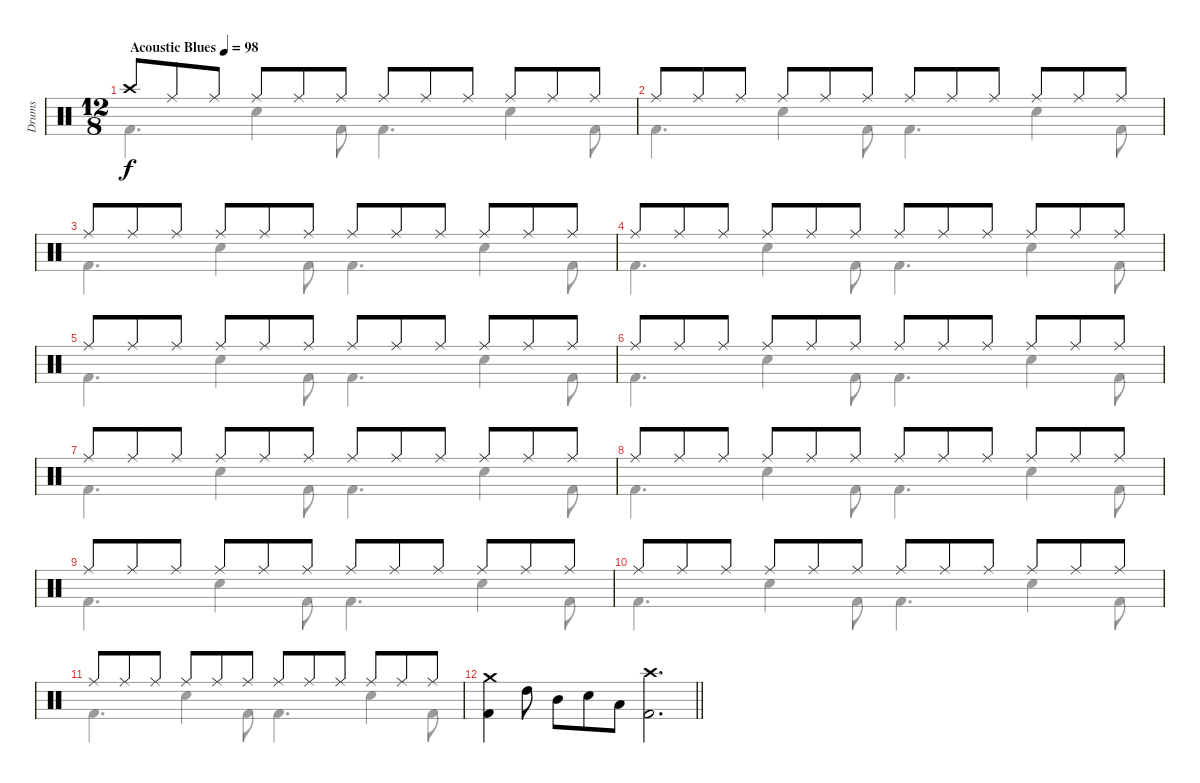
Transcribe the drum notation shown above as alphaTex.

\track ("Drums" "Drums") {instrument percussion}
\staff {score}
\articulation defaults
\voice
\ts (12 8)
\tempo (98 "Acoustic Blues")
\clef neutral
\ks c "Crash high (hit)".8{dy f} "Ride (middle)".8 "Ride (middle)".8 "Ride (middle)".8 "Ride (middle)".8 "Ride (middle)".8 "Ride (middle)".8 "Ride (middle)".8 "Ride (middle)".8 "Ride (middle)".8 "Ride (middle)".8 "Ride (middle)".8
|
"Ride (middle)".8 "Ride (middle)".8 "Ride (middle)".8 "Ride (middle)".8 "Ride (middle)".8 "Ride (middle)".8 "Ride (middle)".8 "Ride (middle)".8 "Ride (middle)".8 "Ride (middle)".8 "Ride (middle)".8 "Ride (middle)".8 |
"Ride (middle)".8 "Ride (middle)".8 "Ride (middle)".8 "Ride (middle)".8 "Ride (middle)".8 "Ride (middle)".8 "Ride (middle)".8 "Ride (middle)".8 "Ride (middle)".8 "Ride (middle)".8 "Ride (middle)".8 "Ride (middle)".8 |
"Ride (middle)".8 "Ride (middle)".8 "Ride (middle)".8 "Ride (middle)".8 "Ride (middle)".8 "Ride (middle)".8 "Ride (middle)".8 "Ride (middle)".8 "Ride (middle)".8 "Ride (middle)".8 "Ride (middle)".8 "Ride (middle)".8 |
"Ride (middle)".8 "Ride (middle)".8 "Ride (middle)".8 "Ride (middle)".8 "Ride (middle)".8 "Ride (middle)".8 "Ride (middle)".8 "Ride (middle)".8 "Ride (middle)".8 "Ride (middle)".8 "Ride (middle)".8 "Ride (middle)".8 |
"Ride (middle)".8 "Ride (middle)".8 "Ride (middle)".8 "Ride (middle)".8 "Ride (middle)".8 "Ride (middle)".8 "Ride (middle)".8 "Ride (middle)".8 "Ride (middle)".8 "Ride (middle)".8 "Ride (middle)".8 "Ride (middle)".8 |
"Ride (middle)".8 "Ride (middle)".8 "Ride (middle)".8 "Ride (middle)".8 "Ride (middle)".8 "Ride (middle)".8 "Ride (middle)".8 "Ride (middle)".8 "Ride (middle)".8 "Ride (middle)".8 "Ride (middle)".8 "Ride (middle)".8 |
"Ride (middle)".8 "Ride (middle)".8 "Ride (middle)".8 "Ride (middle)".8 "Ride (middle)".8 "Ride (middle)".8 "Ride (middle)".8 "Ride (middle)".8 "Ride (middle)".8 "Ride (middle)".8 "Ride (middle)".8 "Ride (middle)".8 |
"Ride (middle)".8 "Ride (middle)".8 "Ride (middle)".8 "Ride (middle)".8 "Ride (middle)".8 "Ride (middle)".8 "Ride (middle)".8 "Ride (middle)".8 "Ride (middle)".8 "Ride (middle)".8 "Ride (middle)".8 "Ride (middle)".8 |
"Ride (middle)".8 "Ride (middle)".8 "Ride (middle)".8 "Ride (middle)".8 "Ride (middle)".8 "Ride (middle)".8 "Ride (middle)".8 "Ride (middle)".8 "Ride (middle)".8 "Ride (middle)".8 "Ride (middle)".8 "Ride (middle)".8 |
"Ride (middle)".8 "Ride (middle)".8 "Ride (middle)".8 "Ride (middle)".8 "Ride (middle)".8 "Ride (middle)".8 "Ride (middle)".8 "Ride (middle)".8 "Ride (middle)".8 "Ride (middle)".8 "Ride (middle)".8 "Ride (middle)".8 |
\barLineRight lightlight
("Crash medium (hit)" "Kick (hit) 2").4 "High Tom (hit)".8 "Mid Tom (hit)".8 "Electric Snare (hit)".8 "Low Tom (hit)".8 ("Crash high (hit)" "Kick (hit) 2").2{d}
\voice
\clef neutral
\ottava regular
\simile none
\ks c "Kick (hit) 2".4{d dy f} "Electric Snare (hit)".4 "Kick (hit) 2".8 "Kick (hit) 2".4{d} "Electric Snare (hit)".4 "Kick (hit) 2".8
|
"Kick (hit) 2".4{d} "Electric Snare (hit)".4 "Kick (hit) 2".8 "Kick (hit) 2".4{d} "Electric Snare (hit)".4 "Kick (hit) 2".8 |
"Kick (hit) 2".4{d} "Electric Snare (hit)".4 "Kick (hit) 2".8 "Kick (hit) 2".4{d} "Electric Snare (hit)".4 "Kick (hit) 2".8 |
"Kick (hit) 2".4{d} "Electric Snare (hit)".4 "Kick (hit) 2".8 "Kick (hit) 2".4{d} "Electric Snare (hit)".4 "Kick (hit) 2".8 |
"Kick (hit) 2".4{d} "Electric Snare (hit)".4 "Kick (hit) 2".8 "Kick (hit) 2".4{d} "Electric Snare (hit)".4 "Kick (hit) 2".8 |
"Kick (hit) 2".4{d} "Electric Snare (hit)".4 "Kick (hit) 2".8 "Kick (hit) 2".4{d} "Electric Snare (hit)".4 "Kick (hit) 2".8 |
"Kick (hit) 2".4{d} "Electric Snare (hit)".4 "Kick (hit) 2".8 "Kick (hit) 2".4{d} "Electric Snare (hit)".4 "Kick (hit) 2".8 |
"Kick (hit) 2".4{d} "Electric Snare (hit)".4 "Kick (hit) 2".8 "Kick (hit) 2".4{d} "Electric Snare (hit)".4 "Kick (hit) 2".8 |
"Kick (hit) 2".4{d} "Electric Snare (hit)".4 "Kick (hit) 2".8 "Kick (hit) 2".4{d} "Electric Snare (hit)".4 "Kick (hit) 2".8 |
"Kick (hit) 2".4{d} "Electric Snare (hit)".4 "Kick (hit) 2".8 "Kick (hit) 2".4{d} "Electric Snare (hit)".4 "Kick (hit) 2".8 |
"Kick (hit) 2".4{d} "Electric Snare (hit)".4 "Kick (hit) 2".8 "Kick (hit) 2".4{d} "Electric Snare (hit)".4 "Kick (hit) 2".8 |
\barLineRight lightlight
